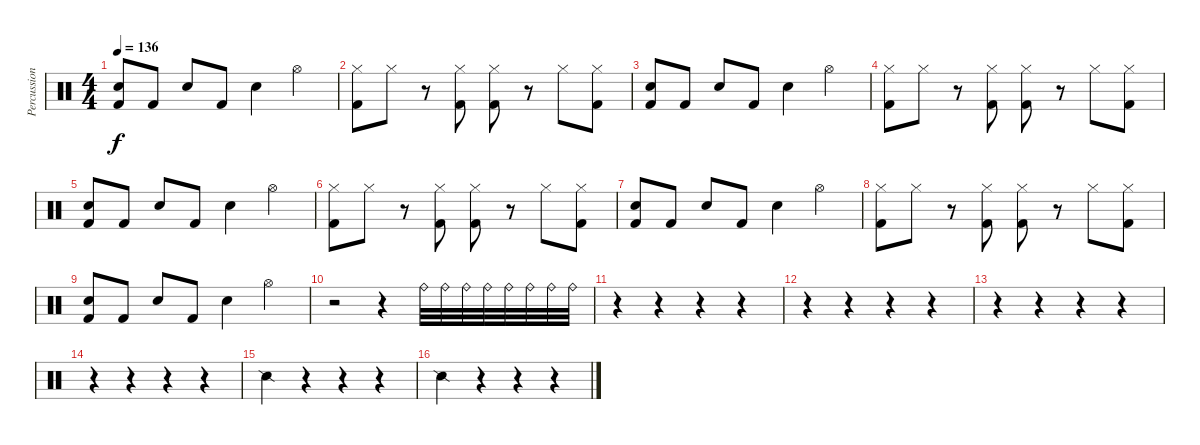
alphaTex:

\track ("Percussion" "Percussion") {instrument percussion}
\staff {score}
\articulation defaults
\ts (4 4)
\tempo 136
\clef neutral
\ks c
("Kick (hit) 2" "Electric Snare (hit)").8{dy f} "Kick (hit) 2".8 "Electric Snare (hit)".8 "Kick (hit) 2".8 "Electric Snare (hit)".4 "Hi-Hat (open)".4 |
("Hi-Hat (closed)" "Kick (hit) 2").8 "Hi-Hat (closed)".8 r.8 ("Hi-Hat (closed)" "Kick (hit) 2").8 ("Hi-Hat (closed)" "Kick (hit) 2").8 r.8 "Hi-Hat (closed)".8 ("Hi-Hat (closed)" "Kick (hit) 2").8 |
("Kick (hit) 2" "Electric Snare (hit)").8 "Kick (hit) 2".8 "Electric Snare (hit)".8 "Kick (hit) 2".8 "Electric Snare (hit)".4 "Hi-Hat (open)".4 |
("Hi-Hat (closed)" "Kick (hit) 2").8 "Hi-Hat (closed)".8 r.8 ("Hi-Hat (closed)" "Kick (hit) 2").8 ("Hi-Hat (closed)" "Kick (hit) 2").8 r.8 "Hi-Hat (closed)".8 ("Hi-Hat (closed)" "Kick (hit) 2").8 |
("Kick (hit) 2" "Electric Snare (hit)").8 "Kick (hit) 2".8 "Electric Snare (hit)".8 "Kick (hit) 2".8 "Electric Snare (hit)".4 "Hi-Hat (open)".4 |
("Hi-Hat (closed)" "Kick (hit) 2").8 "Hi-Hat (closed)".8 r.8 ("Hi-Hat (closed)" "Kick (hit) 2").8 ("Hi-Hat (closed)" "Kick (hit) 2").8 r.8 "Hi-Hat (closed)".8 ("Hi-Hat (closed)" "Kick (hit) 2").8 |
("Kick (hit) 2" "Electric Snare (hit)").8 "Kick (hit) 2".8 "Electric Snare (hit)".8 "Kick (hit) 2".8 "Electric Snare (hit)".4 "Hi-Hat (open)".4 |
("Hi-Hat (closed)" "Kick (hit) 2").8 "Hi-Hat (closed)".8 r.8 ("Hi-Hat (closed)" "Kick (hit) 2").8 ("Hi-Hat (closed)" "Kick (hit) 2").8 r.8 "Hi-Hat (closed)".8 ("Hi-Hat (closed)" "Kick (hit) 2").8 |
("Kick (hit) 2" "Electric Snare (hit)").8 "Kick (hit) 2".8 "Electric Snare (hit)".8 "Kick (hit) 2".8 "Electric Snare (hit)".4 "Hi-Hat (open)".4 |
r.2 r.4 "Ride (bell)".32 "Ride (bell)".32 "Ride (bell)".32 "Ride (bell)".32 "Ride (bell)".32 "Ride (bell)".32 "Ride (bell)".32 "Ride (bell)".32 |
r.4 r.4 r.4 r.4 |
r.4 r.4 r.4 r.4 |
r.4 r.4 r.4 r.4 |
r.4 r.4 r.4 r.4 |
"Snare (side stick) 2".4 r.4 r.4 r.4 |
"Snare (side stick) 2".4 r.4 r.4 r.4
